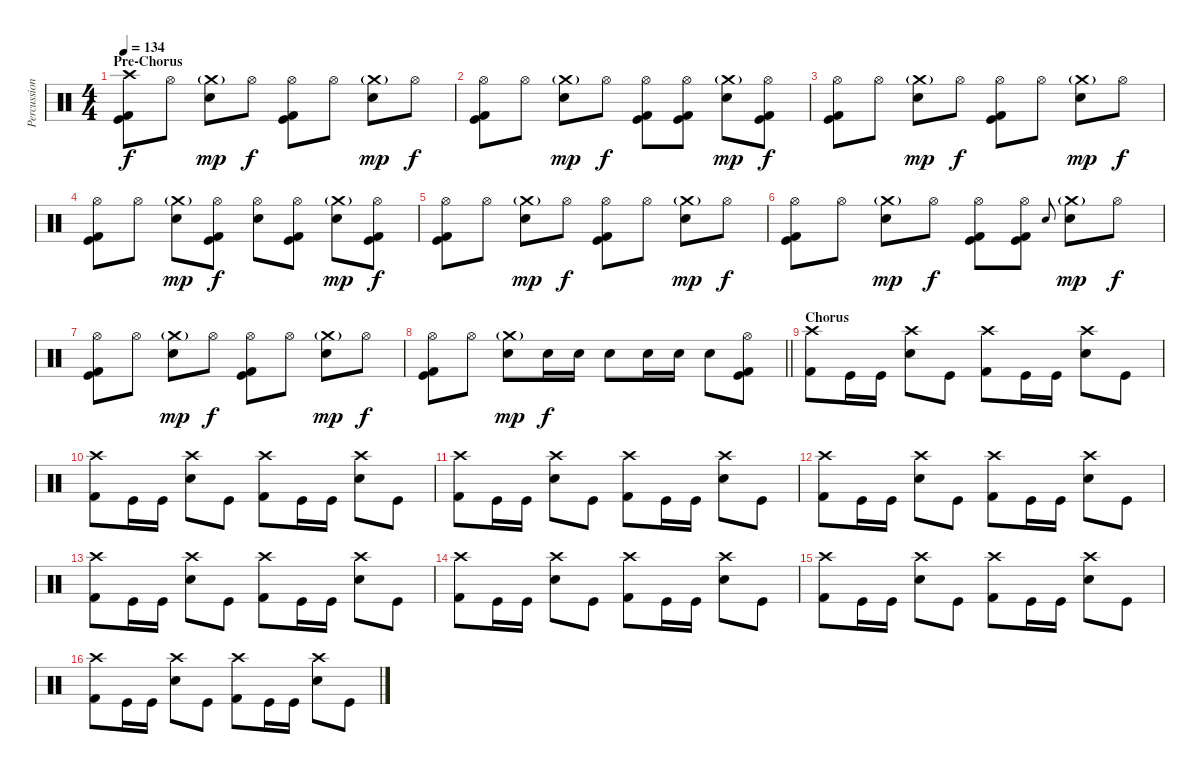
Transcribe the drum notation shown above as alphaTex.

\track ("Percussion" "Percussion") {instrument percussion}
\staff {score}
\articulation defaults
\ts (4 4)
\section ("" "Pre-Chorus")
\tempo 134
\clef neutral
\ks c
("Crash high (hit)" "Kick (hit)" "Kick (hit) 2").8{dy f} "Hi-Hat (open)".8 ("Crash medium (hit)"{g} "Electric Snare (hit)").8{dy mp} "Hi-Hat (open)".8{dy f} ("Hi-Hat (open)" "Kick (hit)" "Kick (hit) 2").8 "Hi-Hat (open)".8 ("Crash medium (hit)"{g} "Electric Snare (hit)").8{dy mp} "Hi-Hat (open)".8{dy f} |
("Hi-Hat (open)" "Kick (hit)" "Kick (hit) 2").8 "Hi-Hat (open)".8 ("Crash medium (hit)"{g} "Electric Snare (hit)").8{dy mp} "Hi-Hat (open)".8{dy f} ("Hi-Hat (open)" "Kick (hit)" "Kick (hit) 2").8 ("Hi-Hat (open)" "Kick (hit)" "Kick (hit) 2").8 ("Crash medium (hit)"{g} "Electric Snare (hit)").8{dy mp} ("Hi-Hat (open)" "Kick (hit)" "Kick (hit) 2").8{dy f} |
("Hi-Hat (open)" "Kick (hit)" "Kick (hit) 2").8 "Hi-Hat (open)".8 ("Crash medium (hit)"{g} "Electric Snare (hit)").8{dy mp} "Hi-Hat (open)".8{dy f} ("Hi-Hat (open)" "Kick (hit)" "Kick (hit) 2").8 "Hi-Hat (open)".8 ("Crash medium (hit)"{g} "Electric Snare (hit)").8{dy mp} "Hi-Hat (open)".8{dy f} |
("Hi-Hat (open)" "Kick (hit)" "Kick (hit) 2").8 "Hi-Hat (open)".8 ("Crash medium (hit)"{g} "Electric Snare (hit)").8{dy mp} ("Hi-Hat (open)" "Kick (hit)" "Kick (hit) 2").8{dy f} ("Hi-Hat (open)" "Electric Snare (hit)").8 ("Hi-Hat (open)" "Kick (hit)" "Kick (hit) 2").8 ("Crash medium (hit)"{g} "Electric Snare (hit)").8{dy mp} ("Hi-Hat (open)" "Kick (hit)" "Kick (hit) 2").8{dy f} |
("Hi-Hat (open)" "Kick (hit)" "Kick (hit) 2").8 "Hi-Hat (open)".8 ("Crash medium (hit)"{g} "Electric Snare (hit)").8{dy mp} "Hi-Hat (open)".8{dy f} ("Hi-Hat (open)" "Kick (hit)" "Kick (hit) 2").8 "Hi-Hat (open)".8 ("Crash medium (hit)"{g} "Electric Snare (hit)").8{dy mp} "Hi-Hat (open)".8{dy f} |
("Hi-Hat (open)" "Kick (hit)" "Kick (hit) 2").8 "Hi-Hat (open)".8 ("Crash medium (hit)"{g} "Electric Snare (hit)").8{dy mp} "Hi-Hat (open)".8{dy f} ("Hi-Hat (open)" "Kick (hit)" "Kick (hit) 2").8 ("Hi-Hat (open)" "Kick (hit)" "Kick (hit) 2").8 "Electric Snare (hit)".8{gr onbeat} ("Crash medium (hit)"{g} "Electric Snare (hit)").8{dy mp} "Hi-Hat (open)".8{dy f} |
("Hi-Hat (open)" "Kick (hit)" "Kick (hit) 2").8 "Hi-Hat (open)".8 ("Crash medium (hit)"{g} "Electric Snare (hit)").8{dy mp} "Hi-Hat (open)".8{dy f} ("Hi-Hat (open)" "Kick (hit)" "Kick (hit) 2").8 "Hi-Hat (open)".8 ("Crash medium (hit)"{g} "Electric Snare (hit)").8{dy mp} "Hi-Hat (open)".8{dy f} |
\barLineRight lightlight
("Hi-Hat (open)" "Kick (hit)" "Kick (hit) 2").8 "Hi-Hat (open)".8 ("Crash medium (hit)"{g} "Electric Snare (hit)").8{dy mp} "Electric Snare (hit)".16{dy f} "Electric Snare (hit)".16 "Electric Snare (hit)".8 "Electric Snare (hit)".16 "Electric Snare (hit)".16 "Electric Snare (hit)".8 ("Hi-Hat (open)" "Kick (hit)" "Kick (hit) 2").8 |
\section ("" "Chorus")
("Crash high (hit)" "Kick (hit) 2").8 "Kick (hit)".16 "Kick (hit)".16 ("Crash high (hit)" "Electric Snare (hit)").8 "Kick (hit)".8 ("Crash high (hit)" "Kick (hit) 2").8 "Kick (hit)".16 "Kick (hit)".16 ("Crash high (hit)" "Electric Snare (hit)").8 "Kick (hit)".8 |
("Crash high (hit)" "Kick (hit) 2").8 "Kick (hit)".16 "Kick (hit)".16 ("Crash high (hit)" "Electric Snare (hit)").8 "Kick (hit)".8 ("Crash high (hit)" "Kick (hit) 2").8 "Kick (hit)".16 "Kick (hit)".16 ("Crash high (hit)" "Electric Snare (hit)").8 "Kick (hit)".8 |
("Crash high (hit)" "Kick (hit) 2").8 "Kick (hit)".16 "Kick (hit)".16 ("Crash high (hit)" "Electric Snare (hit)").8 "Kick (hit)".8 ("Crash high (hit)" "Kick (hit) 2").8 "Kick (hit)".16 "Kick (hit)".16 ("Crash high (hit)" "Electric Snare (hit)").8 "Kick (hit)".8 |
("Crash high (hit)" "Kick (hit) 2").8 "Kick (hit)".16 "Kick (hit)".16 ("Crash high (hit)" "Electric Snare (hit)").8 "Kick (hit)".8 ("Crash high (hit)" "Kick (hit) 2").8 "Kick (hit)".16 "Kick (hit)".16 ("Crash high (hit)" "Electric Snare (hit)").8 "Kick (hit)".8 |
("Crash high (hit)" "Kick (hit) 2").8 "Kick (hit)".16 "Kick (hit)".16 ("Crash high (hit)" "Electric Snare (hit)").8 "Kick (hit)".8 ("Crash high (hit)" "Kick (hit) 2").8 "Kick (hit)".16 "Kick (hit)".16 ("Crash high (hit)" "Electric Snare (hit)").8 "Kick (hit)".8 |
("Crash high (hit)" "Kick (hit) 2").8 "Kick (hit)".16 "Kick (hit)".16 ("Crash high (hit)" "Electric Snare (hit)").8 "Kick (hit)".8 ("Crash high (hit)" "Kick (hit) 2").8 "Kick (hit)".16 "Kick (hit)".16 ("Crash high (hit)" "Electric Snare (hit)").8 "Kick (hit)".8 |
("Crash high (hit)" "Kick (hit) 2").8 "Kick (hit)".16 "Kick (hit)".16 ("Crash high (hit)" "Electric Snare (hit)").8 "Kick (hit)".8 ("Crash high (hit)" "Kick (hit) 2").8 "Kick (hit)".16 "Kick (hit)".16 ("Crash high (hit)" "Electric Snare (hit)").8 "Kick (hit)".8 |
("Crash high (hit)" "Kick (hit) 2").8 "Kick (hit)".16 "Kick (hit)".16 ("Crash high (hit)" "Electric Snare (hit)").8 "Kick (hit)".8 ("Crash high (hit)" "Kick (hit) 2").8 "Kick (hit)".16 "Kick (hit)".16 ("Crash high (hit)" "Electric Snare (hit)").8 "Kick (hit)".8
